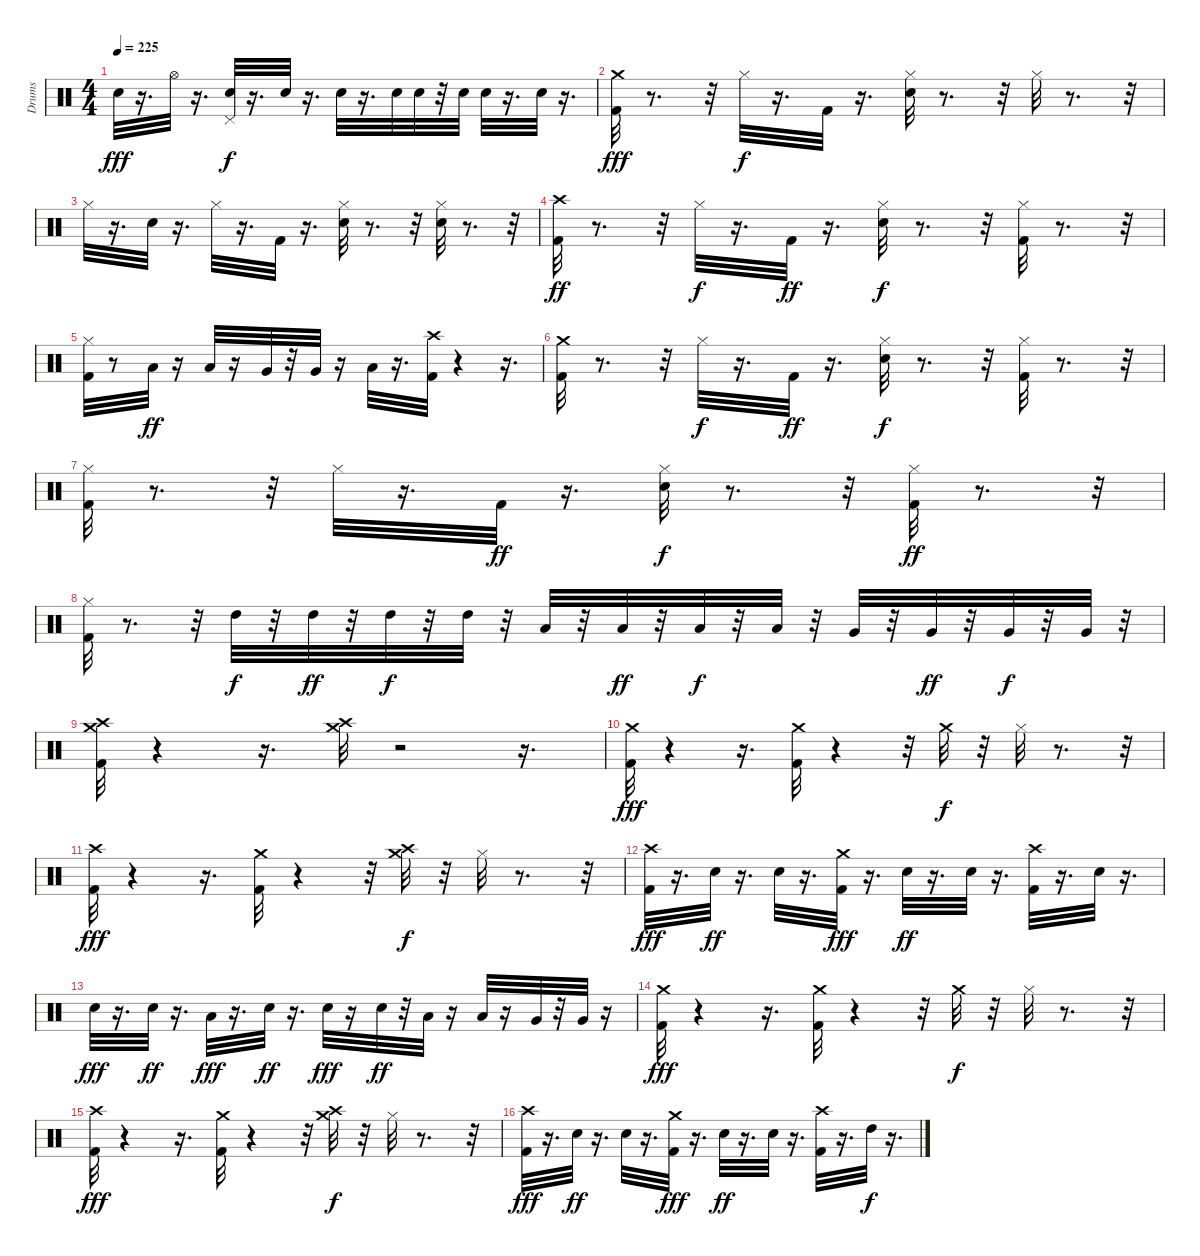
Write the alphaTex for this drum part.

\track ("Drums" "Drums") {instrument percussion}
\staff {score}
\articulation defaults
\ts (4 4)
\tempo 225
\clef neutral
\ks c "Snare (hit) 2".32{dy fff}
r.16{d} "Hi-Hat (open)".32 r.16{d} ("Pedal Hi-Hat (hit)" "Snare (hit) 2").32{dy f} r.16{d} "Snare (hit) 2".32 r.16{d} "Snare (hit) 2".32 r.16{d} "Snare (hit) 2".32 "Snare (hit) 2".32 r.32 "Snare (hit) 2".32 "Snare (hit) 2".32 r.16{d} "Snare (hit) 2".32 r.16{d} |
("Kick (hit) 2" "Crash medium (hit)").32{dy fff} r.8{d} r.32 "Hi-Hat (closed)".32{dy f} r.16{d} "Kick (hit) 2".32 r.16{d} ("Hi-Hat (closed)" "Snare (hit) 2").32 r.8{d} r.32 "Hi-Hat (closed)".32 r.8{d} r.32 |
"Hi-Hat (closed)".32 r.16{d} "Snare (hit) 2".32 r.16{d} "Hi-Hat (closed)".32 r.16{d} "Kick (hit) 2".32 r.16{d} ("Hi-Hat (closed)" "Snare (hit) 2").32 r.8{d} r.32 ("Hi-Hat (closed)" "Snare (hit) 2").32 r.8{d} r.32 |
("Crash high (hit)" "Kick (hit) 2").32{dy ff} r.8{d} r.32 "Hi-Hat (closed)".32{dy f} r.16{d} "Kick (hit) 2".32{dy ff} r.16{d} ("Hi-Hat (closed)" "Snare (hit) 2").32{dy f} r.8{d} r.32 ("Kick (hit) 2" "Hi-Hat (closed)").32 r.8{d} r.32 |
("Kick (hit) 2" "Hi-Hat (closed)").32 r.8 "Low Tom (hit)".32{dy ff} r.16 "Low Tom (hit)".32 r.16 "Very Low Tom (hit)".32 r.32 "Very Low Tom (hit)".32 r.16 "Low Floor Tom (hit)".32 r.16{d} ("Kick (hit) 2" "Crash high (hit)").32 r.4 r.16{d} |
("Kick (hit) 2" "Crash medium (hit)").32 r.8{d} r.32 "Hi-Hat (closed)".32{dy f} r.16{d} "Kick (hit) 2".32{dy ff} r.16{d} ("Snare (hit) 2" "Hi-Hat (closed)").32{dy f} r.8{d} r.32 ("Kick (hit) 2" "Hi-Hat (closed)").32 r.8{d} r.32 |
("Kick (hit) 2" "Hi-Hat (closed)").32 r.8{d} r.32 "Hi-Hat (closed)".32 r.16{d} "Kick (hit) 2".32{dy ff} r.16{d} ("Snare (hit) 2" "Hi-Hat (closed)").32{dy f} r.8{d} r.32 ("Hi-Hat (closed)" "Kick (hit) 2").32{dy ff} r.8{d} r.32 |
("Hi-Hat (closed)" "Kick (hit) 2").32 r.8{d} r.32 "High Tom (hit)".32{dy f} r.32 "High Tom (hit)".32{dy ff} r.32 "High Tom (hit)".32{dy f} r.32 "High Tom (hit)".32 r.32 "Low Tom (hit)".32 r.32 "Low Tom (hit)".32{dy ff} r.32 "Low Tom (hit)".32{dy f} r.32 "Low Tom (hit)".32 r.32 "Very Low Tom (hit)".32 r.32 "Very Low Tom (hit)".32{dy ff} r.32 "Very Low Tom (hit)".32{dy f} r.32 "Very Low Tom (hit)".32 r.32 |
("Crash medium (hit)" "Crash high (hit)" "Kick (hit) 2").32 r.4 r.16{d} ("Crash medium (hit)" "Crash high (hit)").32 r.2 r.16{d} |
("Crash medium (hit)" "Kick (hit) 2").32{dy fff} r.4 r.16{d} ("Crash medium (hit)" "Kick (hit) 2").32 r.4 r.32 "Crash medium (hit)".32{dy f} r.32 "Hi-Hat (closed)".32 r.8{d} r.32 |
("Crash high (hit)" "Kick (hit) 2").32{dy fff} r.4 r.16{d} ("Crash medium (hit)" "Kick (hit) 2").32 r.4 r.32 ("Crash high (hit)" "Crash medium (hit)").32{dy f} r.32 "Hi-Hat (closed)".32 r.8{d} r.32 |
("Crash high (hit)" "Kick (hit) 2").32{dy fff} r.16{d} "Snare (hit) 2".32{dy ff} r.16{d} "Snare (hit) 2".32 r.16{d} ("Crash medium (hit)" "Kick (hit) 2").32{dy fff} r.16{d} "Snare (hit) 2".32{dy ff} r.16{d} "Snare (hit) 2".32 r.16{d} ("Kick (hit) 2" "Crash high (hit)").32 r.16{d} "Snare (hit) 2".32 r.16{d} |
"Snare (hit) 2".32{dy fff} r.16{d} "Snare (hit) 2".32{dy ff} r.16{d} "Low Tom (hit)".32{dy fff} r.16{d} "Snare (hit) 2".32{dy ff} r.16{d} "Snare (hit) 2".32{dy fff} r.16 "Snare (hit) 2".32{dy ff} r.32 "Low Tom (hit)".32 r.16 "Low Tom (hit)".32 r.16 "Very Low Tom (hit)".32 r.32 "Very Low Tom (hit)".32 r.16 |
("Crash medium (hit)" "Kick (hit) 2").32{dy fff} r.4 r.16{d} ("Crash medium (hit)" "Kick (hit) 2").32 r.4 r.32 "Crash medium (hit)".32{dy f} r.32 "Hi-Hat (closed)".32 r.8{d} r.32 |
("Crash high (hit)" "Kick (hit) 2").32{dy fff} r.4 r.16{d} ("Crash medium (hit)" "Kick (hit) 2").32 r.4 r.32 ("Crash high (hit)" "Crash medium (hit)").32{dy f} r.32 "Hi-Hat (closed)".32 r.8{d} r.32 |
("Crash high (hit)" "Kick (hit) 2").32{dy fff} r.16{d} "Snare (hit) 2".32{dy ff} r.16{d} "Snare (hit) 2".32 r.16{d} ("Crash medium (hit)" "Kick (hit) 2").32{dy fff} r.16{d} "Snare (hit) 2".32{dy ff} r.16{d} "Snare (hit) 2".32 r.16{d} ("Kick (hit) 2" "Crash high (hit)").32 r.16{d} "High Tom (hit)".32{dy f} r.16{d}
